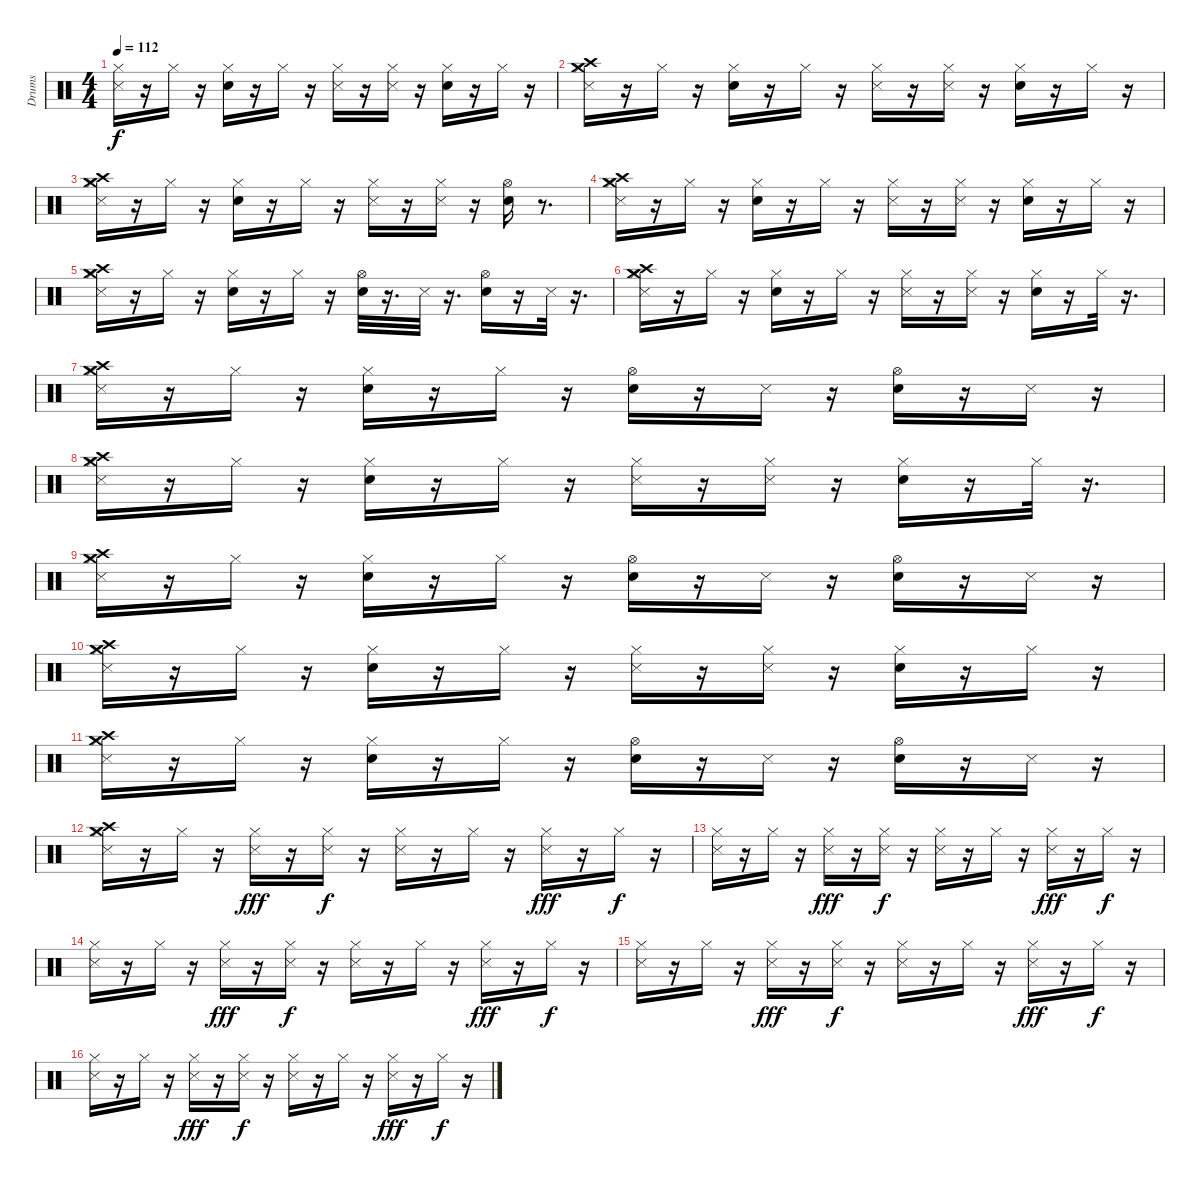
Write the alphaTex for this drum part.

\track ("Drums" "Drums") {instrument percussion}
\staff {score}
\articulation defaults
\ts (4 4)
\tempo 112
\clef neutral
\ks c
("Hi-Hat (closed)" "Metronome (hit)").16{dy f} r.16 "Hi-Hat (closed)".16 r.16 ("Hi-Hat (closed)" "Electric Snare (hit)").16 r.16 "Hi-Hat (closed)".16 r.16 ("Hi-Hat (closed)" "Metronome (hit)").16 r.16 ("Hi-Hat (closed)" "Metronome (hit)").16 r.16 ("Hi-Hat (closed)" "Electric Snare (hit)").16 r.16 "Hi-Hat (closed)".16 r.16 |
("Crash medium (hit)" "Crash high (hit)" "Hi-Hat (closed)" "Metronome (hit)").16 r.16 "Hi-Hat (closed)".16 r.16 ("Hi-Hat (closed)" "Electric Snare (hit)").16 r.16 "Hi-Hat (closed)".16 r.16 ("Hi-Hat (closed)" "Metronome (hit)").16 r.16 ("Hi-Hat (closed)" "Metronome (hit)").16 r.16 ("Hi-Hat (closed)" "Electric Snare (hit)").16 r.16 "Hi-Hat (closed)".16 r.16 |
("Crash high (hit)" "Hi-Hat (closed)" "Crash medium (hit)" "Metronome (hit)").16 r.16 "Hi-Hat (closed)".16 r.16 ("Hi-Hat (closed)" "Electric Snare (hit)").16 r.16 "Hi-Hat (closed)".16 r.16 ("Hi-Hat (closed)" "Metronome (hit)").16 r.16 ("Hi-Hat (closed)" "Metronome (hit)").16 r.16 ("Hi-Hat (open)" "Electric Snare (hit)").16 r.8{d} |
("Crash high (hit)" "Crash medium (hit)" "Hi-Hat (closed)" "Metronome (hit)").16 r.16 "Hi-Hat (closed)".16 r.16 ("Hi-Hat (closed)" "Electric Snare (hit)").16 r.16 "Hi-Hat (closed)".16 r.16 ("Hi-Hat (closed)" "Metronome (hit)").16 r.16 ("Hi-Hat (closed)" "Metronome (hit)").16 r.16 ("Hi-Hat (closed)" "Electric Snare (hit)").16 r.16 "Hi-Hat (closed)".16 r.16 |
("Crash high (hit)" "Crash medium (hit)" "Hi-Hat (closed)" "Metronome (hit)").16 r.16 "Hi-Hat (closed)".16 r.16 ("Hi-Hat (closed)" "Electric Snare (hit)").16 r.16 "Hi-Hat (closed)".16 r.16 ("Hi-Hat (open)" "Electric Snare (hit)").32 r.16{d} "Metronome (hit)".32 r.16{d} ("Electric Snare (hit)" "Hi-Hat (open)").16 r.16 "Metronome (hit)".32 r.16{d} |
("Crash high (hit)" "Crash medium (hit)" "Hi-Hat (closed)" "Metronome (hit)").16 r.16 "Hi-Hat (closed)".16 r.16 ("Hi-Hat (closed)" "Electric Snare (hit)").16 r.16 "Hi-Hat (closed)".16 r.16 ("Metronome (hit)" "Hi-Hat (closed)").16 r.16 ("Hi-Hat (closed)" "Metronome (hit)").16 r.16 ("Electric Snare (hit)" "Hi-Hat (closed)").16 r.16 "Hi-Hat (closed)".32 r.16{d} |
("Hi-Hat (closed)" "Metronome (hit)" "Crash medium (hit)" "Crash high (hit)").16 r.16 "Hi-Hat (closed)".16 r.16 ("Hi-Hat (closed)" "Electric Snare (hit)").16 r.16 "Hi-Hat (closed)".16 r.16 ("Electric Snare (hit)" "Hi-Hat (open)").16 r.16 "Metronome (hit)".16 r.16 ("Electric Snare (hit)" "Hi-Hat (open)").16 r.16 "Metronome (hit)".16 r.16 |
("Metronome (hit)" "Crash medium (hit)" "Crash high (hit)" "Hi-Hat (closed)").16 r.16 "Hi-Hat (closed)".16 r.16 ("Hi-Hat (closed)" "Electric Snare (hit)").16 r.16 "Hi-Hat (closed)".16 r.16 ("Metronome (hit)" "Hi-Hat (closed)").16 r.16 ("Hi-Hat (closed)" "Metronome (hit)").16 r.16 ("Electric Snare (hit)" "Hi-Hat (closed)").16 r.16 "Hi-Hat (closed)".32 r.16{d} |
("Crash high (hit)" "Hi-Hat (closed)" "Metronome (hit)" "Crash medium (hit)").16 r.16 "Hi-Hat (closed)".16 r.16 ("Hi-Hat (closed)" "Electric Snare (hit)").16 r.16 "Hi-Hat (closed)".16 r.16 ("Electric Snare (hit)" "Hi-Hat (open)").16 r.16 "Metronome (hit)".16 r.16 ("Hi-Hat (open)" "Electric Snare (hit)").16 r.16 "Metronome (hit)".16 r.16 |
("Crash medium (hit)" "Hi-Hat (closed)" "Crash high (hit)" "Metronome (hit)").16 r.16 "Hi-Hat (closed)".16 r.16 ("Hi-Hat (closed)" "Electric Snare (hit)").16 r.16 "Hi-Hat (closed)".16 r.16 ("Metronome (hit)" "Hi-Hat (closed)").16 r.16 ("Hi-Hat (closed)" "Metronome (hit)").16 r.16 ("Hi-Hat (closed)" "Electric Snare (hit)").16 r.16 "Hi-Hat (closed)".16 r.16 |
("Crash high (hit)" "Hi-Hat (closed)" "Crash medium (hit)" "Metronome (hit)").16 r.16 "Hi-Hat (closed)".16 r.16 ("Hi-Hat (closed)" "Electric Snare (hit)").16 r.16 "Hi-Hat (closed)".16 r.16 ("Electric Snare (hit)" "Hi-Hat (open)").16 r.16 "Metronome (hit)".16 r.16 ("Electric Snare (hit)" "Hi-Hat (open)").16 r.16 "Metronome (hit)".16 r.16 |
("Crash high (hit)" "Crash medium (hit)" "Metronome (hit)" "Hi-Hat (closed)").16 r.16 "Hi-Hat (closed)".16 r.16 ("Hi-Hat (closed)" "Snare (side stick) 3").16{dy fff} r.16 ("Hi-Hat (closed)" "Metronome (hit)").16{dy f} r.16 ("Metronome (hit)" "Hi-Hat (closed)").16 r.16 "Hi-Hat (closed)".16 r.16 ("Hi-Hat (closed)" "Snare (side stick) 3").16{dy fff} r.16 "Hi-Hat (closed)".16{dy f} r.16 |
("Hi-Hat (closed)" "Metronome (hit)").16 r.16 "Hi-Hat (closed)".16 r.16 ("Snare (side stick) 3" "Hi-Hat (closed)").16{dy fff} r.16 ("Metronome (hit)" "Hi-Hat (closed)").16{dy f} r.16 ("Metronome (hit)" "Hi-Hat (closed)").16 r.16 "Hi-Hat (closed)".16 r.16 ("Snare (side stick) 3" "Hi-Hat (closed)").16{dy fff} r.16 "Hi-Hat (closed)".16{dy f} r.16 |
("Hi-Hat (closed)" "Metronome (hit)").16 r.16 "Hi-Hat (closed)".16 r.16 ("Snare (side stick) 3" "Hi-Hat (closed)").16{dy fff} r.16 ("Metronome (hit)" "Hi-Hat (closed)").16{dy f} r.16 ("Hi-Hat (closed)" "Metronome (hit)").16 r.16 "Hi-Hat (closed)".16 r.16 ("Snare (side stick) 3" "Hi-Hat (closed)").16{dy fff} r.16 "Hi-Hat (closed)".16{dy f} r.16 |
("Metronome (hit)" "Hi-Hat (closed)").16 r.16 "Hi-Hat (closed)".16 r.16 ("Snare (side stick) 3" "Hi-Hat (closed)").16{dy fff} r.16 ("Hi-Hat (closed)" "Metronome (hit)").16{dy f} r.16 ("Hi-Hat (closed)" "Metronome (hit)").16 r.16 "Hi-Hat (closed)".16 r.16 ("Snare (side stick) 3" "Hi-Hat (closed)").16{dy fff} r.16 "Hi-Hat (closed)".16{dy f} r.16 |
("Hi-Hat (closed)" "Metronome (hit)").16 r.16 "Hi-Hat (closed)".16 r.16 ("Hi-Hat (closed)" "Snare (side stick) 3").16{dy fff} r.16 ("Metronome (hit)" "Hi-Hat (closed)").16{dy f} r.16 ("Hi-Hat (closed)" "Metronome (hit)").16 r.16 "Hi-Hat (closed)".16 r.16 ("Hi-Hat (closed)" "Snare (side stick) 3").16{dy fff} r.16 "Hi-Hat (closed)".16{dy f} r.16
